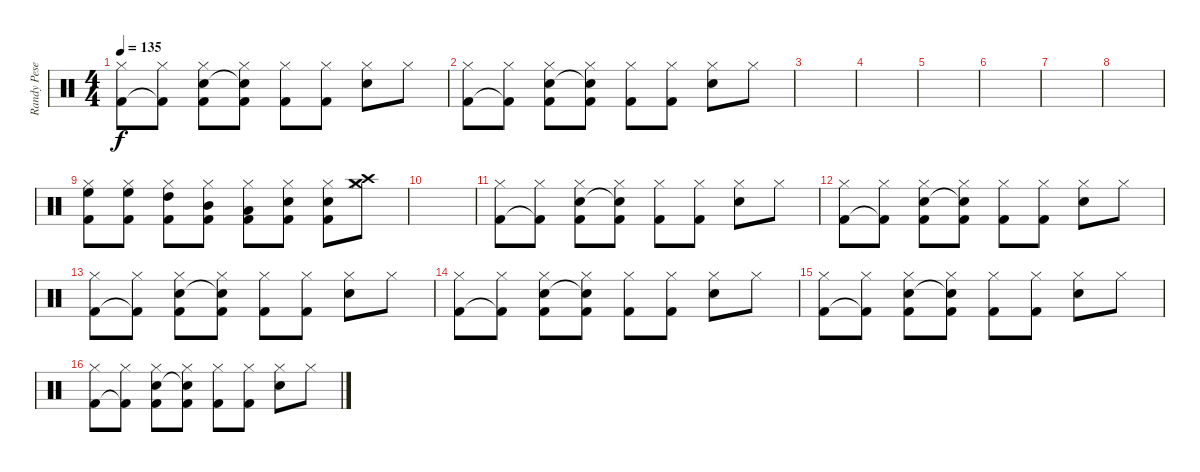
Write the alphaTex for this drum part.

\track ("Randy Pesek" "Randy Pese") {instrument percussion}
\staff {score}
\articulation defaults
\ts (4 4)
\tempo 135
\clef neutral
\ks c
("Hi-Hat (closed)" "Kick (hit) 2").8{dy f} ("Hi-Hat (closed)" "Kick (hit) 2"{t}).8 ("Hi-Hat (closed)" "Snare (hit) 2" "Kick (hit) 2").8 ("Hi-Hat (closed)" "Snare (hit)"{t} "Kick (hit) 2").8 ("Hi-Hat (closed)" "Kick (hit) 2").8 ("Hi-Hat (closed)" "Kick (hit) 2").8 ("Hi-Hat (closed)" "Snare (hit) 2").8 "Hi-Hat (closed)".8 |
("Hi-Hat (closed)" "Kick (hit) 2").8 ("Hi-Hat (closed)" "Kick (hit) 2"{t}).8 ("Hi-Hat (closed)" "Snare (hit) 2" "Kick (hit) 2").8 ("Hi-Hat (closed)" "Snare (hit)"{t} "Kick (hit) 2").8 ("Hi-Hat (closed)" "Kick (hit) 2").8 ("Hi-Hat (closed)" "Kick (hit) 2").8 ("Hi-Hat (closed)" "Snare (hit) 2").8 "Hi-Hat (closed)".8 |
|
|
|
|
|
|
("Hi-Hat (closed)" "High Floor Tom (hit)" "Kick (hit) 2").8 ("Hi-Hat (closed)" "High Floor Tom (hit)" "Kick (hit) 2").8 ("Hi-Hat (closed)" "High Tom (hit)" "Kick (hit) 2").8 ("Hi-Hat (closed)" "Mid Tom (hit)" "Kick (hit) 2").8 ("Hi-Hat (closed)" "Low Tom (hit)" "Kick (hit) 2").8 ("Hi-Hat (closed)" "Snare (hit) 2" "Kick (hit) 2").8 ("Hi-Hat (closed)" "Snare (hit) 2" "Kick (hit) 2").8 ("Hi-Hat (closed)" "Crash medium (hit)" "Crash high (hit)").8 |
|
("Hi-Hat (closed)" "Kick (hit) 2").8 ("Hi-Hat (closed)" "Kick (hit) 2"{t}).8 ("Hi-Hat (closed)" "Snare (hit) 2" "Kick (hit) 2").8 ("Hi-Hat (closed)" "Snare (hit)"{t} "Kick (hit) 2").8 ("Hi-Hat (closed)" "Kick (hit) 2").8 ("Hi-Hat (closed)" "Kick (hit) 2").8 ("Hi-Hat (closed)" "Snare (hit) 2").8 "Hi-Hat (closed)".8 |
("Hi-Hat (closed)" "Kick (hit) 2").8 ("Hi-Hat (closed)" "Kick (hit) 2"{t}).8 ("Hi-Hat (closed)" "Snare (hit) 2" "Kick (hit) 2").8 ("Hi-Hat (closed)" "Snare (hit)"{t} "Kick (hit) 2").8 ("Hi-Hat (closed)" "Kick (hit) 2").8 ("Hi-Hat (closed)" "Kick (hit) 2").8 ("Hi-Hat (closed)" "Snare (hit) 2").8 "Hi-Hat (closed)".8 |
("Hi-Hat (closed)" "Kick (hit) 2").8 ("Hi-Hat (closed)" "Kick (hit) 2"{t}).8 ("Hi-Hat (closed)" "Snare (hit) 2" "Kick (hit) 2").8 ("Hi-Hat (closed)" "Snare (hit)"{t} "Kick (hit) 2").8 ("Hi-Hat (closed)" "Kick (hit) 2").8 ("Hi-Hat (closed)" "Kick (hit) 2").8 ("Hi-Hat (closed)" "Snare (hit) 2").8 "Hi-Hat (closed)".8 |
("Hi-Hat (closed)" "Kick (hit) 2").8 ("Hi-Hat (closed)" "Kick (hit) 2"{t}).8 ("Hi-Hat (closed)" "Snare (hit) 2" "Kick (hit) 2").8 ("Hi-Hat (closed)" "Snare (hit)"{t} "Kick (hit) 2").8 ("Hi-Hat (closed)" "Kick (hit) 2").8 ("Hi-Hat (closed)" "Kick (hit) 2").8 ("Hi-Hat (closed)" "Snare (hit) 2").8 "Hi-Hat (closed)".8 |
("Hi-Hat (closed)" "Kick (hit) 2").8 ("Hi-Hat (closed)" "Kick (hit) 2"{t}).8 ("Hi-Hat (closed)" "Snare (hit) 2" "Kick (hit) 2").8 ("Hi-Hat (closed)" "Snare (hit)"{t} "Kick (hit) 2").8 ("Hi-Hat (closed)" "Kick (hit) 2").8 ("Hi-Hat (closed)" "Kick (hit) 2").8 ("Hi-Hat (closed)" "Snare (hit) 2").8 "Hi-Hat (closed)".8 |
("Hi-Hat (closed)" "Kick (hit) 2").8 ("Hi-Hat (closed)" "Kick (hit) 2"{t}).8 ("Hi-Hat (closed)" "Snare (hit) 2" "Kick (hit) 2").8 ("Hi-Hat (closed)" "Snare (hit)"{t} "Kick (hit) 2").8 ("Hi-Hat (closed)" "Kick (hit) 2").8 ("Hi-Hat (closed)" "Kick (hit) 2").8 ("Hi-Hat (closed)" "Snare (hit) 2").8 "Hi-Hat (closed)".8
